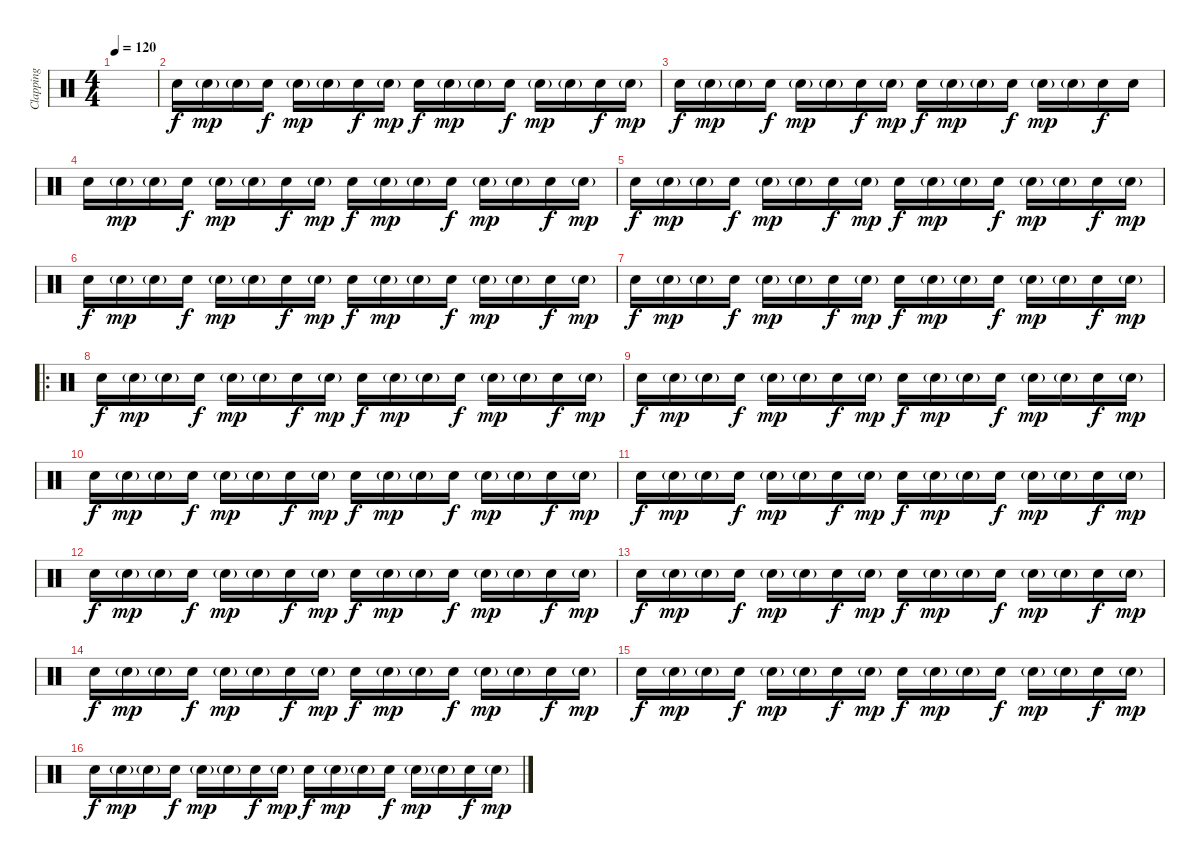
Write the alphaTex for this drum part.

\track ("Clapping" "Clapping") {instrument percussion}
\staff {score}
\articulation defaults
\ts (4 4)
\tempo 120
\clef neutral
\ks c
|
"Hand Clap (hit)".16 "Hand Clap (hit)"{g}.16{dy mp} "Hand Clap (hit)"{g}.16 "Hand Clap (hit)".16{dy f} "Hand Clap (hit)"{g}.16{dy mp} "Hand Clap (hit)"{g}.16 "Hand Clap (hit)".16{dy f} "Hand Clap (hit)"{g}.16{dy mp} "Hand Clap (hit)".16{dy f} "Hand Clap (hit)"{g}.16{dy mp} "Hand Clap (hit)"{g}.16 "Hand Clap (hit)".16{dy f} "Hand Clap (hit)"{g}.16{dy mp} "Hand Clap (hit)"{g}.16 "Hand Clap (hit)".16{dy f} "Hand Clap (hit)"{g}.16{dy mp} |
"Hand Clap (hit)".16{dy f} "Hand Clap (hit)"{g}.16{dy mp} "Hand Clap (hit)"{g}.16 "Hand Clap (hit)".16{dy f} "Hand Clap (hit)"{g}.16{dy mp} "Hand Clap (hit)"{g}.16 "Hand Clap (hit)".16{dy f} "Hand Clap (hit)"{g}.16{dy mp} "Hand Clap (hit)".16{dy f} "Hand Clap (hit)"{g}.16{dy mp} "Hand Clap (hit)"{g}.16 "Hand Clap (hit)".16{dy f} "Hand Clap (hit)"{g}.16{dy mp} "Hand Clap (hit)"{g}.16 "Hand Clap (hit)".16{dy f} "Hand Clap (hit)".16 |
"Hand Clap (hit)".16 "Hand Clap (hit)"{g}.16{dy mp} "Hand Clap (hit)"{g}.16 "Hand Clap (hit)".16{dy f} "Hand Clap (hit)"{g}.16{dy mp} "Hand Clap (hit)"{g}.16 "Hand Clap (hit)".16{dy f} "Hand Clap (hit)"{g}.16{dy mp} "Hand Clap (hit)".16{dy f} "Hand Clap (hit)"{g}.16{dy mp} "Hand Clap (hit)"{g}.16 "Hand Clap (hit)".16{dy f} "Hand Clap (hit)"{g}.16{dy mp} "Hand Clap (hit)"{g}.16 "Hand Clap (hit)".16{dy f} "Hand Clap (hit)"{g}.16{dy mp} |
"Hand Clap (hit)".16{dy f} "Hand Clap (hit)"{g}.16{dy mp} "Hand Clap (hit)"{g}.16 "Hand Clap (hit)".16{dy f} "Hand Clap (hit)"{g}.16{dy mp} "Hand Clap (hit)"{g}.16 "Hand Clap (hit)".16{dy f} "Hand Clap (hit)"{g}.16{dy mp} "Hand Clap (hit)".16{dy f} "Hand Clap (hit)"{g}.16{dy mp} "Hand Clap (hit)"{g}.16 "Hand Clap (hit)".16{dy f} "Hand Clap (hit)"{g}.16{dy mp} "Hand Clap (hit)"{g}.16 "Hand Clap (hit)".16{dy f} "Hand Clap (hit)"{g}.16{dy mp} |
"Hand Clap (hit)".16{dy f} "Hand Clap (hit)"{g}.16{dy mp} "Hand Clap (hit)"{g}.16 "Hand Clap (hit)".16{dy f} "Hand Clap (hit)"{g}.16{dy mp} "Hand Clap (hit)"{g}.16 "Hand Clap (hit)".16{dy f} "Hand Clap (hit)"{g}.16{dy mp} "Hand Clap (hit)".16{dy f} "Hand Clap (hit)"{g}.16{dy mp} "Hand Clap (hit)"{g}.16 "Hand Clap (hit)".16{dy f} "Hand Clap (hit)"{g}.16{dy mp} "Hand Clap (hit)"{g}.16 "Hand Clap (hit)".16{dy f} "Hand Clap (hit)"{g}.16{dy mp} |
"Hand Clap (hit)".16{dy f} "Hand Clap (hit)"{g}.16{dy mp} "Hand Clap (hit)"{g}.16 "Hand Clap (hit)".16{dy f} "Hand Clap (hit)"{g}.16{dy mp} "Hand Clap (hit)"{g}.16 "Hand Clap (hit)".16{dy f} "Hand Clap (hit)"{g}.16{dy mp} "Hand Clap (hit)".16{dy f} "Hand Clap (hit)"{g}.16{dy mp} "Hand Clap (hit)"{g}.16 "Hand Clap (hit)".16{dy f} "Hand Clap (hit)"{g}.16{dy mp} "Hand Clap (hit)"{g}.16 "Hand Clap (hit)".16{dy f} "Hand Clap (hit)"{g}.16{dy mp} |
\ro "Hand Clap (hit)".16{dy f} "Hand Clap (hit)"{g}.16{dy mp} "Hand Clap (hit)"{g}.16 "Hand Clap (hit)".16{dy f} "Hand Clap (hit)"{g}.16{dy mp} "Hand Clap (hit)"{g}.16 "Hand Clap (hit)".16{dy f} "Hand Clap (hit)"{g}.16{dy mp} "Hand Clap (hit)".16{dy f} "Hand Clap (hit)"{g}.16{dy mp} "Hand Clap (hit)"{g}.16 "Hand Clap (hit)".16{dy f} "Hand Clap (hit)"{g}.16{dy mp} "Hand Clap (hit)"{g}.16 "Hand Clap (hit)".16{dy f} "Hand Clap (hit)"{g}.16{dy mp}
|
"Hand Clap (hit)".16{dy f} "Hand Clap (hit)"{g}.16{dy mp} "Hand Clap (hit)"{g}.16 "Hand Clap (hit)".16{dy f} "Hand Clap (hit)"{g}.16{dy mp} "Hand Clap (hit)"{g}.16 "Hand Clap (hit)".16{dy f} "Hand Clap (hit)"{g}.16{dy mp} "Hand Clap (hit)".16{dy f} "Hand Clap (hit)"{g}.16{dy mp} "Hand Clap (hit)"{g}.16 "Hand Clap (hit)".16{dy f} "Hand Clap (hit)"{g}.16{dy mp} "Hand Clap (hit)"{g}.16 "Hand Clap (hit)".16{dy f} "Hand Clap (hit)"{g}.16{dy mp} |
"Hand Clap (hit)".16{dy f} "Hand Clap (hit)"{g}.16{dy mp} "Hand Clap (hit)"{g}.16 "Hand Clap (hit)".16{dy f} "Hand Clap (hit)"{g}.16{dy mp} "Hand Clap (hit)"{g}.16 "Hand Clap (hit)".16{dy f} "Hand Clap (hit)"{g}.16{dy mp} "Hand Clap (hit)".16{dy f} "Hand Clap (hit)"{g}.16{dy mp} "Hand Clap (hit)"{g}.16 "Hand Clap (hit)".16{dy f} "Hand Clap (hit)"{g}.16{dy mp} "Hand Clap (hit)"{g}.16 "Hand Clap (hit)".16{dy f} "Hand Clap (hit)"{g}.16{dy mp} |
"Hand Clap (hit)".16{dy f} "Hand Clap (hit)"{g}.16{dy mp} "Hand Clap (hit)"{g}.16 "Hand Clap (hit)".16{dy f} "Hand Clap (hit)"{g}.16{dy mp} "Hand Clap (hit)"{g}.16 "Hand Clap (hit)".16{dy f} "Hand Clap (hit)"{g}.16{dy mp} "Hand Clap (hit)".16{dy f} "Hand Clap (hit)"{g}.16{dy mp} "Hand Clap (hit)"{g}.16 "Hand Clap (hit)".16{dy f} "Hand Clap (hit)"{g}.16{dy mp} "Hand Clap (hit)"{g}.16 "Hand Clap (hit)".16{dy f} "Hand Clap (hit)"{g}.16{dy mp} |
"Hand Clap (hit)".16{dy f} "Hand Clap (hit)"{g}.16{dy mp} "Hand Clap (hit)"{g}.16 "Hand Clap (hit)".16{dy f} "Hand Clap (hit)"{g}.16{dy mp} "Hand Clap (hit)"{g}.16 "Hand Clap (hit)".16{dy f} "Hand Clap (hit)"{g}.16{dy mp} "Hand Clap (hit)".16{dy f} "Hand Clap (hit)"{g}.16{dy mp} "Hand Clap (hit)"{g}.16 "Hand Clap (hit)".16{dy f} "Hand Clap (hit)"{g}.16{dy mp} "Hand Clap (hit)"{g}.16 "Hand Clap (hit)".16{dy f} "Hand Clap (hit)"{g}.16{dy mp} |
"Hand Clap (hit)".16{dy f} "Hand Clap (hit)"{g}.16{dy mp} "Hand Clap (hit)"{g}.16 "Hand Clap (hit)".16{dy f} "Hand Clap (hit)"{g}.16{dy mp} "Hand Clap (hit)"{g}.16 "Hand Clap (hit)".16{dy f} "Hand Clap (hit)"{g}.16{dy mp} "Hand Clap (hit)".16{dy f} "Hand Clap (hit)"{g}.16{dy mp} "Hand Clap (hit)"{g}.16 "Hand Clap (hit)".16{dy f} "Hand Clap (hit)"{g}.16{dy mp} "Hand Clap (hit)"{g}.16 "Hand Clap (hit)".16{dy f} "Hand Clap (hit)"{g}.16{dy mp} |
"Hand Clap (hit)".16{dy f} "Hand Clap (hit)"{g}.16{dy mp} "Hand Clap (hit)"{g}.16 "Hand Clap (hit)".16{dy f} "Hand Clap (hit)"{g}.16{dy mp} "Hand Clap (hit)"{g}.16 "Hand Clap (hit)".16{dy f} "Hand Clap (hit)"{g}.16{dy mp} "Hand Clap (hit)".16{dy f} "Hand Clap (hit)"{g}.16{dy mp} "Hand Clap (hit)"{g}.16 "Hand Clap (hit)".16{dy f} "Hand Clap (hit)"{g}.16{dy mp} "Hand Clap (hit)"{g}.16 "Hand Clap (hit)".16{dy f} "Hand Clap (hit)"{g}.16{dy mp} |
"Hand Clap (hit)".16{dy f} "Hand Clap (hit)"{g}.16{dy mp} "Hand Clap (hit)"{g}.16 "Hand Clap (hit)".16{dy f} "Hand Clap (hit)"{g}.16{dy mp} "Hand Clap (hit)"{g}.16 "Hand Clap (hit)".16{dy f} "Hand Clap (hit)"{g}.16{dy mp} "Hand Clap (hit)".16{dy f} "Hand Clap (hit)"{g}.16{dy mp} "Hand Clap (hit)"{g}.16 "Hand Clap (hit)".16{dy f} "Hand Clap (hit)"{g}.16{dy mp} "Hand Clap (hit)"{g}.16 "Hand Clap (hit)".16{dy f} "Hand Clap (hit)"{g}.16{dy mp} |
"Hand Clap (hit)".16{dy f} "Hand Clap (hit)"{g}.16{dy mp} "Hand Clap (hit)"{g}.16 "Hand Clap (hit)".16{dy f} "Hand Clap (hit)"{g}.16{dy mp} "Hand Clap (hit)"{g}.16 "Hand Clap (hit)".16{dy f} "Hand Clap (hit)"{g}.16{dy mp} "Hand Clap (hit)".16{dy f} "Hand Clap (hit)"{g}.16{dy mp} "Hand Clap (hit)"{g}.16 "Hand Clap (hit)".16{dy f} "Hand Clap (hit)"{g}.16{dy mp} "Hand Clap (hit)"{g}.16 "Hand Clap (hit)".16{dy f} "Hand Clap (hit)"{g}.16{dy mp}
